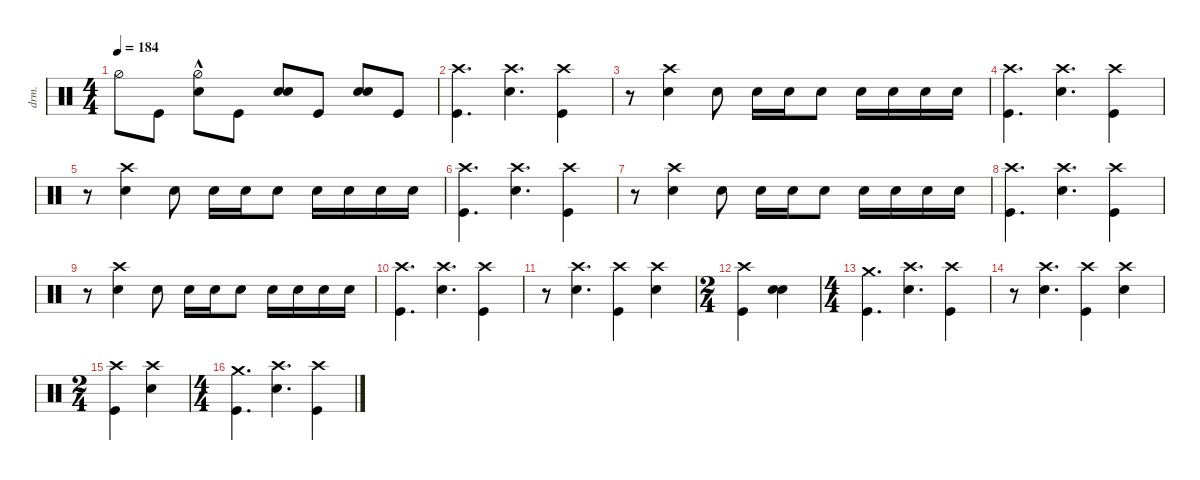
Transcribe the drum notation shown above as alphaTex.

\defaultSystemsLayout 4
\hideDynamics
\bracketExtendMode nobrackets
\otherSystemsTrackNameOrientation horizontal
\track ("Drums" "drm.") {defaultSystemsLayout 4 multiBarRest instrument percussion}
\staff {score}
\articulation defaults
\ts (4 4)
\tempo 184
\clef neutral
\ks c "Hi-Hat (half)".8{dy f} "Kick (hit)".8
("Hi-Hat (half)"{hac} "Snare (hit) 2").8 "Kick (hit)".8 ("Snare (hit) 2" "Snare (hit) 2").8 "Kick (hit)".8 ("Snare (hit) 2" "Snare (hit) 2").8 "Kick (hit)".8 |
("Crash high (hit)" "Kick (hit)").4{d} ("Snare (hit) 2" "Crash high (hit)").4{d} ("Crash high (hit)" "Kick (hit)").4 |
r.8 ("Snare (hit) 2" "Crash high (hit)").4 "Snare (hit) 2".8 "Snare (hit) 2".16 "Snare (hit) 2".16 "Snare (hit) 2".8 "Snare (hit) 2".16 "Snare (hit) 2".16 "Snare (hit) 2".16 "Snare (hit) 2".16 |
("Crash high (hit)" "Kick (hit)").4{d} ("Snare (hit) 2" "Crash high (hit)").4{d} ("Crash high (hit)" "Kick (hit)").4 |
r.8 ("Snare (hit) 2" "Crash high (hit)").4 "Snare (hit) 2".8 "Snare (hit) 2".16 "Snare (hit) 2".16 "Snare (hit) 2".8 "Snare (hit) 2".16 "Snare (hit) 2".16 "Snare (hit) 2".16 "Snare (hit) 2".16 |
("Crash high (hit)" "Kick (hit)").4{d} ("Snare (hit) 2" "Crash high (hit)").4{d} ("Crash high (hit)" "Kick (hit)").4 |
r.8 ("Snare (hit) 2" "Crash high (hit)").4 "Snare (hit) 2".8 "Snare (hit) 2".16 "Snare (hit) 2".16 "Snare (hit) 2".8 "Snare (hit) 2".16 "Snare (hit) 2".16 "Snare (hit) 2".16 "Snare (hit) 2".16 |
("Crash high (hit)" "Kick (hit)").4{d} ("Snare (hit) 2" "Crash high (hit)").4{d} ("Crash high (hit)" "Kick (hit)").4 |
r.8 ("Snare (hit) 2" "Crash high (hit)").4 "Snare (hit) 2".8 "Snare (hit) 2".16 "Snare (hit) 2".16 "Snare (hit) 2".8 "Snare (hit) 2".16 "Snare (hit) 2".16 "Snare (hit) 2".16 "Snare (hit) 2".16 |
("Crash high (hit)" "Kick (hit)").4{d} ("Snare (hit) 2" "Crash high (hit)").4{d} ("Crash high (hit)" "Kick (hit)").4 |
r.8 ("Snare (hit) 2" "Crash high (hit)").4{d} ("Crash high (hit)" "Kick (hit)").4 ("Snare (hit) 2" "Crash high (hit)").4 |
\ts (2 4)
\beaming (8 2 2 2 2)
("Crash high (hit)" "Kick (hit)").4 ("Snare (hit) 2" "Snare (hit) 2").4 |
\ts (4 4)
\beaming (8 2 2 2 2)
("Crash medium (hit)" "Kick (hit)").4{d} ("Snare (hit) 2" "Crash high (hit)").4{d} ("Crash high (hit)" "Kick (hit)").4 |
r.8 ("Snare (hit) 2" "Crash high (hit)").4{d} ("Crash high (hit)" "Kick (hit)").4 ("Snare (hit) 2" "Crash high (hit)").4 |
\ts (2 4)
\beaming (8 2 2 2 2)
("Crash high (hit)" "Kick (hit)").4 ("Snare (hit) 2" "Crash high (hit)").4 |
\ts (4 4)
\beaming (8 2 2 2 2)
("Crash medium (hit)" "Kick (hit)").4{d} ("Snare (hit) 2" "Crash high (hit)").4{d} ("Crash high (hit)" "Kick (hit)").4
